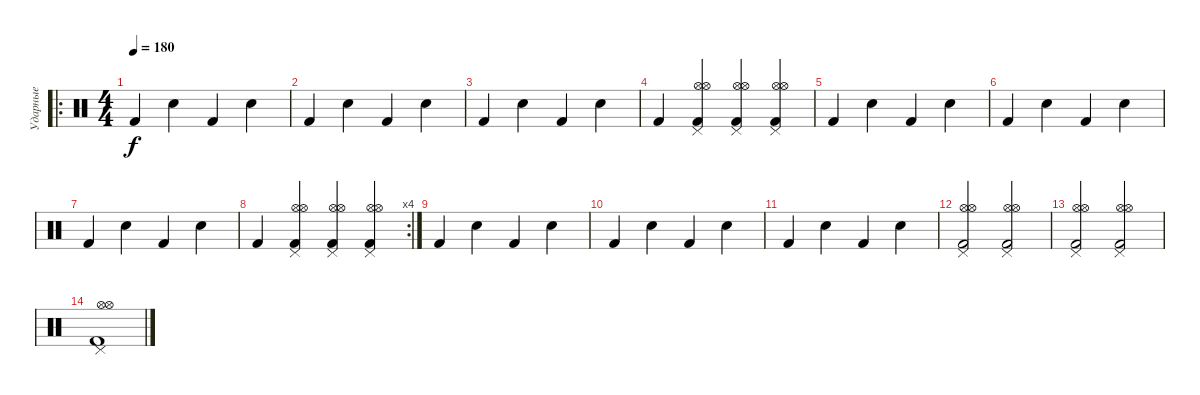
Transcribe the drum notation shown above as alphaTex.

\track ("Ударные" "Ударные") {instrument percussion}
\staff {score}
\articulation defaults
\ro
\ts (4 4)
\tempo 180
\clef neutral
\ks c "Kick (hit) 2".4{dy f} "Electric Snare (hit)".4 "Kick (hit) 2".4 "Electric Snare (hit)".4
|
"Kick (hit) 2".4 "Electric Snare (hit)".4 "Kick (hit) 2".4 "Electric Snare (hit)".4 |
"Kick (hit) 2".4 "Electric Snare (hit)".4 "Kick (hit) 2".4 "Electric Snare (hit)".4 |
"Kick (hit) 2".4 ("Hi-Hat (open)" "Pedal Hi-Hat (hit)" "Hi-Hat (open)" "Kick (hit) 2").4 ("Hi-Hat (open)" "Pedal Hi-Hat (hit)" "Hi-Hat (open)" "Kick (hit) 2").4 ("Hi-Hat (open)" "Pedal Hi-Hat (hit)" "Hi-Hat (open)" "Kick (hit) 2").4 |
"Kick (hit) 2".4 "Electric Snare (hit)".4 "Kick (hit) 2".4 "Electric Snare (hit)".4 |
"Kick (hit) 2".4 "Electric Snare (hit)".4 "Kick (hit) 2".4 "Electric Snare (hit)".4 |
"Kick (hit) 2".4 "Electric Snare (hit)".4 "Kick (hit) 2".4 "Electric Snare (hit)".4 |
\rc 4 "Kick (hit) 2".4
("Hi-Hat (open)" "Pedal Hi-Hat (hit)" "Hi-Hat (open)" "Kick (hit) 2").4 ("Hi-Hat (open)" "Pedal Hi-Hat (hit)" "Hi-Hat (open)" "Kick (hit) 2").4 ("Hi-Hat (open)" "Pedal Hi-Hat (hit)" "Hi-Hat (open)" "Kick (hit) 2").4 |
"Kick (hit) 2".4 "Electric Snare (hit)".4 "Kick (hit) 2".4 "Electric Snare (hit)".4 |
"Kick (hit) 2".4 "Electric Snare (hit)".4 "Kick (hit) 2".4 "Electric Snare (hit)".4 |
"Kick (hit) 2".4 "Electric Snare (hit)".4 "Kick (hit) 2".4 "Electric Snare (hit)".4 |
("Hi-Hat (open)" "Pedal Hi-Hat (hit)" "Hi-Hat (open)" "Kick (hit) 2").2 ("Hi-Hat (open)" "Pedal Hi-Hat (hit)" "Hi-Hat (open)" "Kick (hit) 2").2 |
("Hi-Hat (open)" "Pedal Hi-Hat (hit)" "Hi-Hat (open)" "Kick (hit) 2").2 ("Hi-Hat (open)" "Pedal Hi-Hat (hit)" "Hi-Hat (open)" "Kick (hit) 2").2 |
("Hi-Hat (open)" "Pedal Hi-Hat (hit)" "Hi-Hat (open)" "Kick (hit) 2").1
